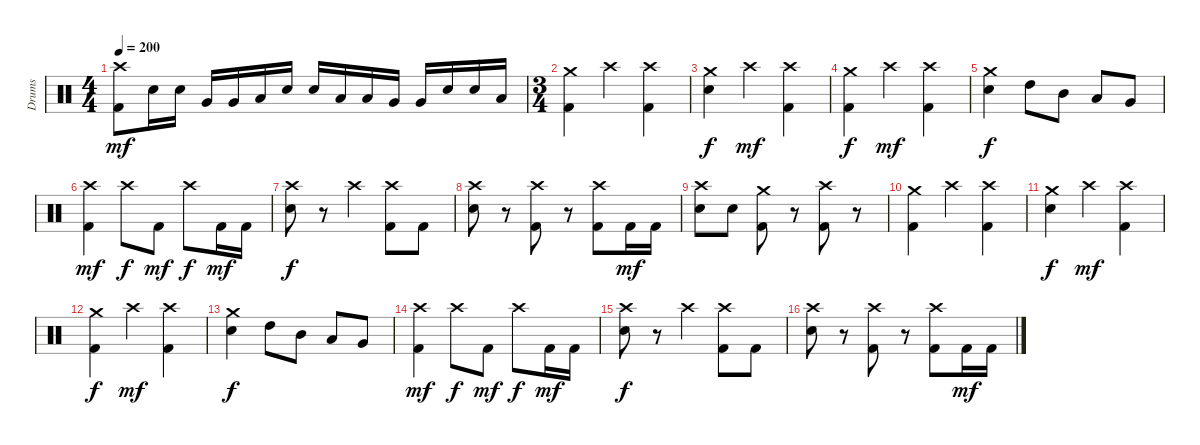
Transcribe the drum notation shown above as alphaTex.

\track ("Drums" "Drums") {instrument percussion}
\staff {score}
\articulation defaults
\ts (4 4)
\tempo 200
\clef neutral
\ks c
("Crash high (hit)" "Kick (hit) 2").8{dy mf} "Electric Snare (hit)".16 "Electric Snare (hit)".16 "Very Low Tom (hit)".16 "Very Low Tom (hit)".16 "Low Floor Tom (hit)".16 "Electric Snare (hit)".16 "Electric Snare (hit)".16 "Low Tom (hit)".16 "Low Tom (hit)".16 "Very Low Tom (hit)".16 "Very Low Tom (hit)".16 "Electric Snare (hit)".16 "Electric Snare (hit)".16 "Low Floor Tom (hit)".16 |
\ts (3 4)
("Crash medium (hit)" "Kick (hit) 2").4 "Crash high (hit)".4 ("Crash high (hit)" "Kick (hit) 2").4 |
("Crash medium (hit)" "Electric Snare (hit)").4{dy f} "Crash high (hit)".4{dy mf} ("Crash high (hit)" "Kick (hit) 2").4 |
("Crash medium (hit)" "Kick (hit) 2").4{dy f} "Crash high (hit)".4{dy mf} ("Crash high (hit)" "Kick (hit) 2").4 |
("Crash medium (hit)" "Electric Snare (hit)").4{dy f} "High Tom (hit)".8 "Mid Tom (hit)".8 "Low Tom (hit)".8 "Very Low Tom (hit)".8 |
("Crash high (hit)" "Kick (hit) 2").4{dy mf} "Crash high (hit)".8{dy f} "Kick (hit) 2".8{dy mf} "Crash high (hit)".8{dy f} "Kick (hit) 2".16{dy mf} "Kick (hit) 2".16 |
("Crash high (hit)" "Electric Snare (hit)").8{dy f} r.8 "Crash high (hit)".4 ("Crash high (hit)" "Kick (hit) 2").8 "Kick (hit) 2".8 |
("Crash high (hit)" "Electric Snare (hit)").8 r.8 ("Crash high (hit)" "Kick (hit) 2").8 r.8 ("Crash high (hit)" "Kick (hit) 2").8 "Kick (hit) 2".16{dy mf} "Kick (hit) 2".16 |
("Crash high (hit)" "Electric Snare (hit)").8 "Electric Snare (hit)".8 ("Crash medium (hit)" "Kick (hit) 2").8 r.8 ("Crash high (hit)" "Kick (hit) 2").8 r.8 |
("Crash medium (hit)" "Kick (hit) 2").4 "Crash high (hit)".4 ("Crash high (hit)" "Kick (hit) 2").4 |
("Crash medium (hit)" "Electric Snare (hit)").4{dy f} "Crash high (hit)".4{dy mf} ("Crash high (hit)" "Kick (hit) 2").4 |
("Crash medium (hit)" "Kick (hit) 2").4{dy f} "Crash high (hit)".4{dy mf} ("Crash high (hit)" "Kick (hit) 2").4 |
("Crash medium (hit)" "Electric Snare (hit)").4{dy f} "High Tom (hit)".8 "Mid Tom (hit)".8 "Low Tom (hit)".8 "Very Low Tom (hit)".8 |
("Crash high (hit)" "Kick (hit) 2").4{dy mf} "Crash high (hit)".8{dy f} "Kick (hit) 2".8{dy mf} "Crash high (hit)".8{dy f} "Kick (hit) 2".16{dy mf} "Kick (hit) 2".16 |
("Crash high (hit)" "Electric Snare (hit)").8{dy f} r.8 "Crash high (hit)".4 ("Crash high (hit)" "Kick (hit) 2").8 "Kick (hit) 2".8 |
("Crash high (hit)" "Electric Snare (hit)").8 r.8 ("Crash high (hit)" "Kick (hit) 2").8 r.8 ("Crash high (hit)" "Kick (hit) 2").8 "Kick (hit) 2".16{dy mf} "Kick (hit) 2".16
